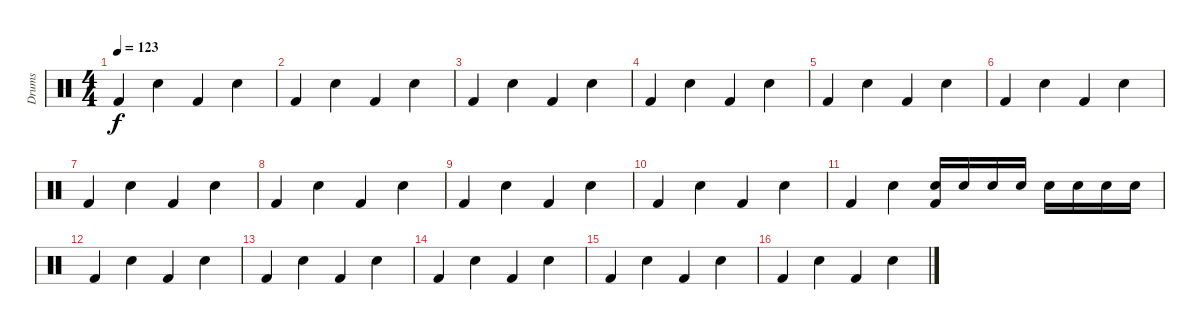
\track ("Drums" "Drums") {instrument percussion}
\staff {score}
\articulation defaults
\ts (4 4)
\tempo 123
\clef neutral
\ks c "Kick (hit) 2".4{dy f} "Electric Snare (hit)".4 "Kick (hit) 2".4 "Electric Snare (hit)".4
|
"Kick (hit) 2".4 "Electric Snare (hit)".4 "Kick (hit) 2".4 "Electric Snare (hit)".4 |
"Kick (hit) 2".4 "Electric Snare (hit)".4 "Kick (hit) 2".4 "Electric Snare (hit)".4 |
"Kick (hit) 2".4 "Electric Snare (hit)".4 "Kick (hit) 2".4 "Electric Snare (hit)".4 |
"Kick (hit) 2".4 "Electric Snare (hit)".4 "Kick (hit) 2".4 "Electric Snare (hit)".4 |
"Kick (hit) 2".4 "Electric Snare (hit)".4 "Kick (hit) 2".4 "Electric Snare (hit)".4 |
"Kick (hit) 2".4 "Electric Snare (hit)".4 "Kick (hit) 2".4 "Electric Snare (hit)".4 |
"Kick (hit) 2".4 "Electric Snare (hit)".4 "Kick (hit) 2".4 "Electric Snare (hit)".4 |
"Kick (hit) 2".4 "Electric Snare (hit)".4 "Kick (hit) 2".4 "Electric Snare (hit)".4 |
"Kick (hit) 2".4 "Electric Snare (hit)".4 "Kick (hit) 2".4 "Electric Snare (hit)".4 |
"Kick (hit) 2".4 "Electric Snare (hit)".4 ("Kick (hit) 2" "Electric Snare (hit)").16 "Electric Snare (hit)".16 "Electric Snare (hit)".16 "Electric Snare (hit)".16 "Electric Snare (hit)".16 "Electric Snare (hit)".16 "Electric Snare (hit)".16 "Electric Snare (hit)".16 |
"Kick (hit) 2".4 "Electric Snare (hit)".4 "Kick (hit) 2".4 "Electric Snare (hit)".4 |
"Kick (hit) 2".4 "Electric Snare (hit)".4 "Kick (hit) 2".4 "Electric Snare (hit)".4 |
"Kick (hit) 2".4 "Electric Snare (hit)".4 "Kick (hit) 2".4 "Electric Snare (hit)".4 |
"Kick (hit) 2".4 "Electric Snare (hit)".4 "Kick (hit) 2".4 "Electric Snare (hit)".4 |
"Kick (hit) 2".4 "Electric Snare (hit)".4 "Kick (hit) 2".4 "Electric Snare (hit)".4
